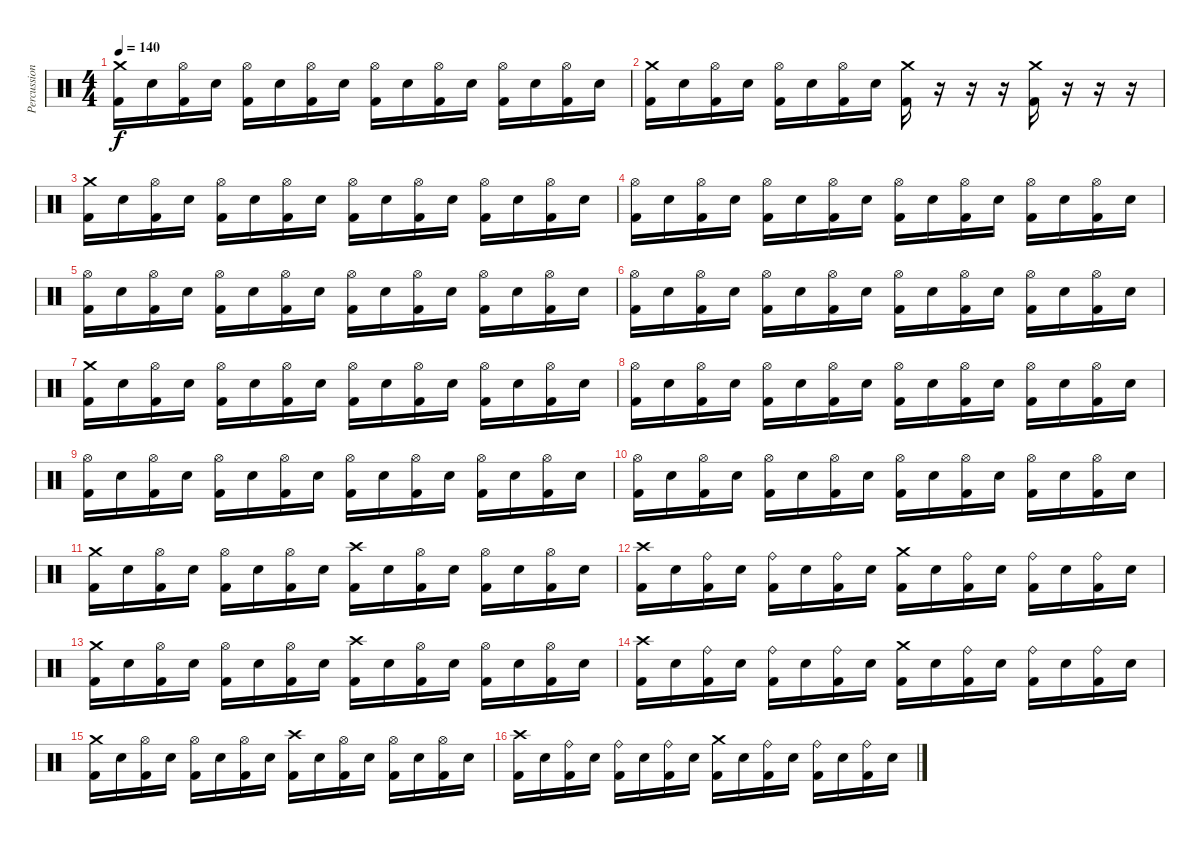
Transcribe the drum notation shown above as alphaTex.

\track ("Percussion" "Percussion") {instrument percussion}
\staff {score}
\articulation defaults
\ts (4 4)
\tempo 140
\clef neutral
\ks c
("Crash medium (hit)" "Kick (hit) 2").16{dy f} "Electric Snare (hit)".16 ("Hi-Hat (open)" "Kick (hit) 2").16 "Electric Snare (hit)".16 ("Hi-Hat (open)" "Kick (hit) 2").16 "Electric Snare (hit)".16 ("Hi-Hat (open)" "Kick (hit) 2").16 "Electric Snare (hit)".16 ("Hi-Hat (open)" "Kick (hit) 2").16 "Electric Snare (hit)".16 ("Hi-Hat (open)" "Kick (hit) 2").16 "Electric Snare (hit)".16 ("Hi-Hat (open)" "Kick (hit) 2").16 "Electric Snare (hit)".16 ("Hi-Hat (open)" "Kick (hit) 2").16 "Electric Snare (hit)".16 |
("Crash medium (hit)" "Kick (hit) 2").16 "Electric Snare (hit)".16 ("Hi-Hat (open)" "Kick (hit) 2").16 "Electric Snare (hit)".16 ("Hi-Hat (open)" "Kick (hit) 2").16 "Electric Snare (hit)".16 ("Hi-Hat (open)" "Kick (hit) 2").16 "Electric Snare (hit)".16 ("Crash medium (hit)" "Kick (hit) 2").16 r.16 r.16 r.16 ("Crash medium (hit)" "Kick (hit) 2").16 r.16 r.16 r.16 |
("Crash medium (hit)" "Kick (hit) 2").16 "Electric Snare (hit)".16 ("Hi-Hat (open)" "Kick (hit) 2").16 "Electric Snare (hit)".16 ("Hi-Hat (open)" "Kick (hit) 2").16 "Electric Snare (hit)".16 ("Hi-Hat (open)" "Kick (hit) 2").16 "Electric Snare (hit)".16 ("Hi-Hat (open)" "Kick (hit) 2").16 "Electric Snare (hit)".16 ("Hi-Hat (open)" "Kick (hit) 2").16 "Electric Snare (hit)".16 ("Hi-Hat (open)" "Kick (hit) 2").16 "Electric Snare (hit)".16 ("Hi-Hat (open)" "Kick (hit) 2").16 "Electric Snare (hit)".16 |
("Hi-Hat (open)" "Kick (hit) 2").16 "Electric Snare (hit)".16 ("Hi-Hat (open)" "Kick (hit) 2").16 "Electric Snare (hit)".16 ("Hi-Hat (open)" "Kick (hit) 2").16 "Electric Snare (hit)".16 ("Hi-Hat (open)" "Kick (hit) 2").16 "Electric Snare (hit)".16 ("Hi-Hat (open)" "Kick (hit) 2").16 "Electric Snare (hit)".16 ("Hi-Hat (open)" "Kick (hit) 2").16 "Electric Snare (hit)".16 ("Hi-Hat (open)" "Kick (hit) 2").16 "Electric Snare (hit)".16 ("Hi-Hat (open)" "Kick (hit) 2").16 "Electric Snare (hit)".16 |
("Hi-Hat (open)" "Kick (hit) 2").16 "Electric Snare (hit)".16 ("Hi-Hat (open)" "Kick (hit) 2").16 "Electric Snare (hit)".16 ("Hi-Hat (open)" "Kick (hit) 2").16 "Electric Snare (hit)".16 ("Hi-Hat (open)" "Kick (hit) 2").16 "Electric Snare (hit)".16 ("Hi-Hat (open)" "Kick (hit) 2").16 "Electric Snare (hit)".16 ("Hi-Hat (open)" "Kick (hit) 2").16 "Electric Snare (hit)".16 ("Hi-Hat (open)" "Kick (hit) 2").16 "Electric Snare (hit)".16 ("Hi-Hat (open)" "Kick (hit) 2").16 "Electric Snare (hit)".16 |
("Hi-Hat (open)" "Kick (hit) 2").16 "Electric Snare (hit)".16 ("Hi-Hat (open)" "Kick (hit) 2").16 "Electric Snare (hit)".16 ("Hi-Hat (open)" "Kick (hit) 2").16 "Electric Snare (hit)".16 ("Hi-Hat (open)" "Kick (hit) 2").16 "Electric Snare (hit)".16 ("Hi-Hat (open)" "Kick (hit) 2").16 "Electric Snare (hit)".16 ("Hi-Hat (open)" "Kick (hit) 2").16 "Electric Snare (hit)".16 ("Hi-Hat (open)" "Kick (hit) 2").16 "Electric Snare (hit)".16 ("Hi-Hat (open)" "Kick (hit) 2").16 "Electric Snare (hit)".16 |
("Crash medium (hit)" "Kick (hit) 2").16 "Electric Snare (hit)".16 ("Hi-Hat (open)" "Kick (hit) 2").16 "Electric Snare (hit)".16 ("Hi-Hat (open)" "Kick (hit) 2").16 "Electric Snare (hit)".16 ("Hi-Hat (open)" "Kick (hit) 2").16 "Electric Snare (hit)".16 ("Hi-Hat (open)" "Kick (hit) 2").16 "Electric Snare (hit)".16 ("Hi-Hat (open)" "Kick (hit) 2").16 "Electric Snare (hit)".16 ("Hi-Hat (open)" "Kick (hit) 2").16 "Electric Snare (hit)".16 ("Hi-Hat (open)" "Kick (hit) 2").16 "Electric Snare (hit)".16 |
("Hi-Hat (open)" "Kick (hit) 2").16 "Electric Snare (hit)".16 ("Hi-Hat (open)" "Kick (hit) 2").16 "Electric Snare (hit)".16 ("Hi-Hat (open)" "Kick (hit) 2").16 "Electric Snare (hit)".16 ("Hi-Hat (open)" "Kick (hit) 2").16 "Electric Snare (hit)".16 ("Hi-Hat (open)" "Kick (hit) 2").16 "Electric Snare (hit)".16 ("Hi-Hat (open)" "Kick (hit) 2").16 "Electric Snare (hit)".16 ("Hi-Hat (open)" "Kick (hit) 2").16 "Electric Snare (hit)".16 ("Hi-Hat (open)" "Kick (hit) 2").16 "Electric Snare (hit)".16 |
("Hi-Hat (open)" "Kick (hit) 2").16 "Electric Snare (hit)".16 ("Hi-Hat (open)" "Kick (hit) 2").16 "Electric Snare (hit)".16 ("Hi-Hat (open)" "Kick (hit) 2").16 "Electric Snare (hit)".16 ("Hi-Hat (open)" "Kick (hit) 2").16 "Electric Snare (hit)".16 ("Hi-Hat (open)" "Kick (hit) 2").16 "Electric Snare (hit)".16 ("Hi-Hat (open)" "Kick (hit) 2").16 "Electric Snare (hit)".16 ("Hi-Hat (open)" "Kick (hit) 2").16 "Electric Snare (hit)".16 ("Hi-Hat (open)" "Kick (hit) 2").16 "Electric Snare (hit)".16 |
("Hi-Hat (open)" "Kick (hit) 2").16 "Electric Snare (hit)".16 ("Hi-Hat (open)" "Kick (hit) 2").16 "Electric Snare (hit)".16 ("Hi-Hat (open)" "Kick (hit) 2").16 "Electric Snare (hit)".16 ("Hi-Hat (open)" "Kick (hit) 2").16 "Electric Snare (hit)".16 ("Hi-Hat (open)" "Kick (hit) 2").16 "Electric Snare (hit)".16 ("Hi-Hat (open)" "Kick (hit) 2").16 "Electric Snare (hit)".16 ("Hi-Hat (open)" "Kick (hit) 2").16 "Electric Snare (hit)".16 ("Hi-Hat (open)" "Kick (hit) 2").16 "Electric Snare (hit)".16 |
("Crash medium (hit)" "Kick (hit) 2").16 "Electric Snare (hit)".16 ("Hi-Hat (open)" "Kick (hit) 2").16 "Electric Snare (hit)".16 ("Hi-Hat (open)" "Kick (hit) 2").16 "Electric Snare (hit)".16 ("Hi-Hat (open)" "Kick (hit) 2").16 "Electric Snare (hit)".16 ("Crash high (hit)" "Kick (hit) 2").16 "Electric Snare (hit)".16 ("Hi-Hat (open)" "Kick (hit) 2").16 "Electric Snare (hit)".16 ("Hi-Hat (open)" "Kick (hit) 2").16 "Electric Snare (hit)".16 ("Hi-Hat (open)" "Kick (hit) 2").16 "Electric Snare (hit)".16 |
("Crash high (hit)" "Kick (hit) 2").16 "Electric Snare (hit)".16 ("Ride (bell)" "Kick (hit) 2").16 "Electric Snare (hit)".16 ("Ride (bell)" "Kick (hit) 2").16 "Electric Snare (hit)".16 ("Ride (bell)" "Kick (hit) 2").16 "Electric Snare (hit)".16 ("Crash medium (hit)" "Kick (hit) 2").16 "Electric Snare (hit)".16 ("Ride (bell)" "Kick (hit) 2").16 "Electric Snare (hit)".16 ("Ride (bell)" "Kick (hit) 2").16 "Electric Snare (hit)".16 ("Ride (bell)" "Kick (hit) 2").16 "Electric Snare (hit)".16 |
("Crash medium (hit)" "Kick (hit) 2").16 "Electric Snare (hit)".16 ("Hi-Hat (open)" "Kick (hit) 2").16 "Electric Snare (hit)".16 ("Hi-Hat (open)" "Kick (hit) 2").16 "Electric Snare (hit)".16 ("Hi-Hat (open)" "Kick (hit) 2").16 "Electric Snare (hit)".16 ("Crash high (hit)" "Kick (hit) 2").16 "Electric Snare (hit)".16 ("Hi-Hat (open)" "Kick (hit) 2").16 "Electric Snare (hit)".16 ("Hi-Hat (open)" "Kick (hit) 2").16 "Electric Snare (hit)".16 ("Hi-Hat (open)" "Kick (hit) 2").16 "Electric Snare (hit)".16 |
("Crash high (hit)" "Kick (hit) 2").16 "Electric Snare (hit)".16 ("Ride (bell)" "Kick (hit) 2").16 "Electric Snare (hit)".16 ("Ride (bell)" "Kick (hit) 2").16 "Electric Snare (hit)".16 ("Ride (bell)" "Kick (hit) 2").16 "Electric Snare (hit)".16 ("Crash medium (hit)" "Kick (hit) 2").16 "Electric Snare (hit)".16 ("Ride (bell)" "Kick (hit) 2").16 "Electric Snare (hit)".16 ("Ride (bell)" "Kick (hit) 2").16 "Electric Snare (hit)".16 ("Ride (bell)" "Kick (hit) 2").16 "Electric Snare (hit)".16 |
("Crash medium (hit)" "Kick (hit) 2").16 "Electric Snare (hit)".16 ("Hi-Hat (open)" "Kick (hit) 2").16 "Electric Snare (hit)".16 ("Hi-Hat (open)" "Kick (hit) 2").16 "Electric Snare (hit)".16 ("Hi-Hat (open)" "Kick (hit) 2").16 "Electric Snare (hit)".16 ("Crash high (hit)" "Kick (hit) 2").16 "Electric Snare (hit)".16 ("Hi-Hat (open)" "Kick (hit) 2").16 "Electric Snare (hit)".16 ("Hi-Hat (open)" "Kick (hit) 2").16 "Electric Snare (hit)".16 ("Hi-Hat (open)" "Kick (hit) 2").16 "Electric Snare (hit)".16 |
("Crash high (hit)" "Kick (hit) 2").16 "Electric Snare (hit)".16 ("Ride (bell)" "Kick (hit) 2").16 "Electric Snare (hit)".16 ("Ride (bell)" "Kick (hit) 2").16 "Electric Snare (hit)".16 ("Ride (bell)" "Kick (hit) 2").16 "Electric Snare (hit)".16 ("Crash medium (hit)" "Kick (hit) 2").16 "Electric Snare (hit)".16 ("Ride (bell)" "Kick (hit) 2").16 "Electric Snare (hit)".16 ("Ride (bell)" "Kick (hit) 2").16 "Electric Snare (hit)".16 ("Ride (bell)" "Kick (hit) 2").16 "Electric Snare (hit)".16
